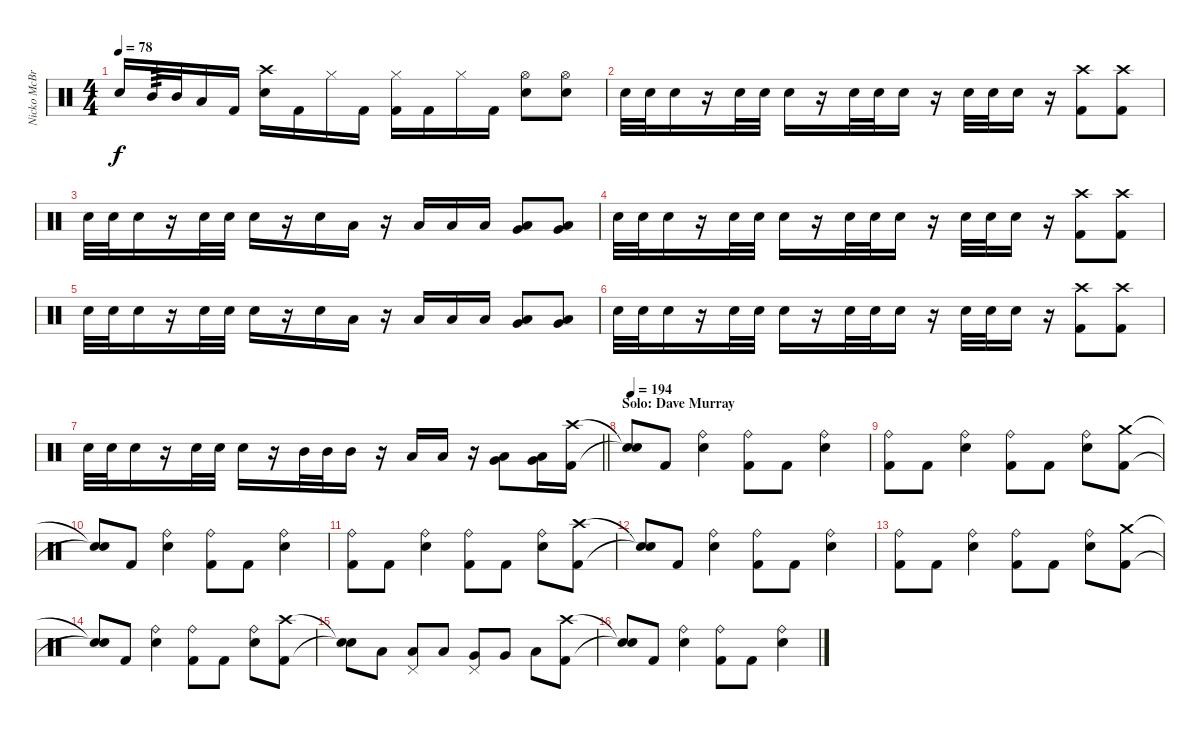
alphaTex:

\track ("Nicko McBrain" "Nicko McBr") {instrument percussion}
\staff {score}
\articulation defaults
\ts (4 4)
\tempo 78
\clef neutral
\ks c "Electric Snare (hit)".16{dy f} "Mid Tom (hit)".32{tp 3} "Mid Tom (hit)".32 "Low Tom (hit)".16 "Kick (hit) 2".16
("Crash high (hit)" "Electric Snare (hit)").16 "Kick (hit) 2".16 "Hi-Hat (closed)".16 "Kick (hit) 2".16 ("Hi-Hat (closed)" "Kick (hit) 2").16 "Kick (hit) 2".16 "Hi-Hat (closed)".16 "Kick (hit) 2".16 ("Hi-Hat (open)" "Electric Snare (hit)").8 ("Hi-Hat (open)" "Electric Snare (hit)").8 |
"Electric Snare (hit)".32 "Electric Snare (hit)".32 "Electric Snare (hit)".16 r.16 "Electric Snare (hit)".32 "Electric Snare (hit)".32 "Electric Snare (hit)".16 r.16 "Electric Snare (hit)".32 "Electric Snare (hit)".32 "Electric Snare (hit)".16 r.16 "Electric Snare (hit)".32 "Electric Snare (hit)".32 "Electric Snare (hit)".16 r.16 ("Crash high (hit)" "Kick (hit) 2").8 ("Crash high (hit)" "Kick (hit) 2").8 |
"Electric Snare (hit)".32 "Electric Snare (hit)".32 "Electric Snare (hit)".16 r.16 "Electric Snare (hit)".32 "Electric Snare (hit)".32 "Electric Snare (hit)".16 r.16 "Electric Snare (hit)".16 "Low Tom (hit)".16 r.16 "Low Tom (hit)".16 "Low Tom (hit)".16 "Low Tom (hit)".16 ("Very Low Tom (hit)" "Low Floor Tom (hit)").8 ("Very Low Tom (hit)" "Low Floor Tom (hit)").8 |
"Electric Snare (hit)".32 "Electric Snare (hit)".32 "Electric Snare (hit)".16 r.16 "Electric Snare (hit)".32 "Electric Snare (hit)".32 "Electric Snare (hit)".16 r.16 "Electric Snare (hit)".32 "Electric Snare (hit)".32 "Electric Snare (hit)".16 r.16 "Electric Snare (hit)".32 "Electric Snare (hit)".32 "Electric Snare (hit)".16 r.16 ("Crash high (hit)" "Kick (hit) 2").8 ("Crash high (hit)" "Kick (hit) 2").8 |
"Electric Snare (hit)".32 "Electric Snare (hit)".32 "Electric Snare (hit)".16 r.16 "Electric Snare (hit)".32 "Electric Snare (hit)".32 "Electric Snare (hit)".16 r.16 "Electric Snare (hit)".16 "Low Tom (hit)".16 r.16 "Low Tom (hit)".16 "Low Tom (hit)".16 "Low Tom (hit)".16 ("Very Low Tom (hit)" "Low Floor Tom (hit)").8 ("Very Low Tom (hit)" "Low Floor Tom (hit)").8 |
"Electric Snare (hit)".32 "Electric Snare (hit)".32 "Electric Snare (hit)".16 r.16 "Electric Snare (hit)".32 "Electric Snare (hit)".32 "Electric Snare (hit)".16 r.16 "Electric Snare (hit)".32 "Electric Snare (hit)".32 "Electric Snare (hit)".16 r.16 "Electric Snare (hit)".32 "Electric Snare (hit)".32 "Electric Snare (hit)".16 r.16 ("Crash high (hit)" "Kick (hit) 2").8 ("Crash high (hit)" "Kick (hit) 2").8 |
\barLineRight lightlight "Electric Snare (hit)".32 "Electric Snare (hit)".32 "Electric Snare (hit)".16
r.16 "Electric Snare (hit)".32 "Electric Snare (hit)".32 "Electric Snare (hit)".16 r.16 "Mid Tom (hit)".32 "Mid Tom (hit)".32 "Mid Tom (hit)".16 r.16 "Low Tom (hit)".16 "Low Tom (hit)".16 r.16 ("Very Low Tom (hit)" "Low Floor Tom (hit)").8 ("Very Low Tom (hit)" "Low Floor Tom (hit)").16 ("Crash high (hit)" "Kick (hit) 2").16 |
\section ("" "Solo: Dave Murray")
\tempo 194
("Snare (hit)"{t} "Snare (hit)"{t}).8 "Kick (hit) 2".8 ("Ride (bell)" "Electric Snare (hit)").4 ("Ride (bell)" "Kick (hit) 2").8 "Kick (hit) 2".8 ("Ride (bell)" "Electric Snare (hit)").4 |
("Ride (bell)" "Kick (hit) 2").8 "Kick (hit) 2".8 ("Ride (bell)" "Electric Snare (hit)").4 ("Ride (bell)" "Kick (hit) 2").8 "Kick (hit) 2".8 ("Ride (bell)" "Electric Snare (hit)").8 ("Crash medium (hit)" "Kick (hit) 2").8 |
("Snare (hit)"{t} "Snare (hit)"{t}).8 "Kick (hit) 2".8 ("Ride (bell)" "Electric Snare (hit)").4 ("Ride (bell)" "Kick (hit) 2").8 "Kick (hit) 2".8 ("Ride (bell)" "Electric Snare (hit)").4 |
("Ride (bell)" "Kick (hit) 2").8 "Kick (hit) 2".8 ("Ride (bell)" "Electric Snare (hit)").4 ("Ride (bell)" "Kick (hit) 2").8 "Kick (hit) 2".8 ("Ride (bell)" "Electric Snare (hit)").8 ("Crash high (hit)" "Kick (hit) 2").8 |
("Snare (hit)"{t} "Snare (hit)"{t}).8 "Kick (hit) 2".8 ("Ride (bell)" "Electric Snare (hit)").4 ("Ride (bell)" "Kick (hit) 2").8 "Kick (hit) 2".8 ("Ride (bell)" "Electric Snare (hit)").4 |
("Ride (bell)" "Kick (hit) 2").8 "Kick (hit) 2".8 ("Ride (bell)" "Electric Snare (hit)").4 ("Ride (bell)" "Kick (hit) 2").8 "Kick (hit) 2".8 ("Ride (bell)" "Electric Snare (hit)").8 ("Crash medium (hit)" "Kick (hit) 2").8 |
("Snare (hit)"{t} "Snare (hit)"{t}).8 "Kick (hit) 2".8 ("Ride (bell)" "Electric Snare (hit)").4 ("Ride (bell)" "Kick (hit) 2").8 "Kick (hit) 2".8 ("Ride (bell)" "Electric Snare (hit)").8 ("Crash high (hit)" "Kick (hit) 2").8 |
("Snare (hit)"{t} "Snare (hit)"{t}).8 "Low Tom (hit)".8 ("Low Tom (hit)" "Pedal Hi-Hat (hit)").8 "Low Tom (hit)".8 ("Very Low Tom (hit)" "Pedal Hi-Hat (hit)").8 "Very Low Tom (hit)".8 "Low Floor Tom (hit)".8 ("Crash high (hit)" "Kick (hit) 2").8 |
("Snare (hit)"{t} "Snare (hit)"{t}).8 "Kick (hit) 2".8 ("Ride (bell)" "Electric Snare (hit)").4 ("Ride (bell)" "Kick (hit) 2").8 "Kick (hit) 2".8 ("Ride (bell)" "Electric Snare (hit)").4
